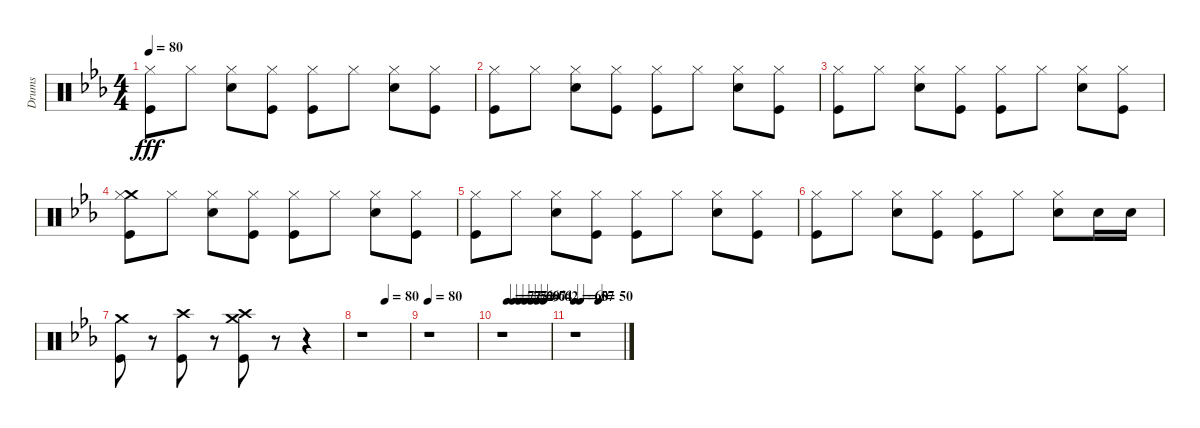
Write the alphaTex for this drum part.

\track ("Drums" "Drums") {instrument percussion}
\staff {score}
\articulation defaults
\ts (4 4)
\tempo 80
\clef neutral
\ks eb
("Kick (hit)" "Hi-Hat (closed)").8{dy fff} "Hi-Hat (closed)".8 ("Snare (hit) 2" "Hi-Hat (closed)").8 ("Kick (hit)" "Hi-Hat (closed)").8 ("Kick (hit)" "Hi-Hat (closed)").8 "Hi-Hat (closed)".8 ("Snare (hit) 2" "Hi-Hat (closed)").8 ("Kick (hit)" "Hi-Hat (closed)").8 |
("Kick (hit)" "Hi-Hat (closed)").8 "Hi-Hat (closed)".8 ("Snare (hit) 2" "Hi-Hat (closed)").8 ("Kick (hit)" "Hi-Hat (closed)").8 ("Kick (hit)" "Hi-Hat (closed)").8 "Hi-Hat (closed)".8 ("Snare (hit) 2" "Hi-Hat (closed)").8 ("Kick (hit)" "Hi-Hat (closed)").8 |
("Kick (hit)" "Hi-Hat (closed)").8 "Hi-Hat (closed)".8 ("Snare (hit) 2" "Hi-Hat (closed)").8 ("Kick (hit)" "Hi-Hat (closed)").8 ("Kick (hit)" "Hi-Hat (closed)").8 "Hi-Hat (closed)".8 ("Snare (hit) 2" "Hi-Hat (closed)").8 ("Kick (hit)" "Hi-Hat (closed)").8 |
("Crash medium (hit)" "Kick (hit)" "Hi-Hat (closed)").8 "Hi-Hat (closed)".8 ("Snare (hit) 2" "Hi-Hat (closed)").8 ("Kick (hit)" "Hi-Hat (closed)").8 ("Kick (hit)" "Hi-Hat (closed)").8 "Hi-Hat (closed)".8 ("Snare (hit) 2" "Hi-Hat (closed)").8 ("Kick (hit)" "Hi-Hat (closed)").8 |
("Kick (hit)" "Hi-Hat (closed)").8 "Hi-Hat (closed)".8 ("Snare (hit) 2" "Hi-Hat (closed)").8 ("Kick (hit)" "Hi-Hat (closed)").8 ("Kick (hit)" "Hi-Hat (closed)").8 "Hi-Hat (closed)".8 ("Snare (hit) 2" "Hi-Hat (closed)").8 ("Kick (hit)" "Hi-Hat (closed)").8 |
("Kick (hit)" "Hi-Hat (closed)").8 "Hi-Hat (closed)".8 ("Snare (hit) 2" "Hi-Hat (closed)").8 ("Kick (hit)" "Hi-Hat (closed)").8 ("Kick (hit)" "Hi-Hat (closed)").8 "Hi-Hat (closed)".8 ("Snare (hit) 2" "Hi-Hat (closed)").8 "Snare (hit) 2".16 "Snare (hit) 2".16 |
("Kick (hit)" "Crash medium (hit)").8 r.8 ("Kick (hit)" "Crash high (hit)").8 r.8 ("Kick (hit)" "Crash medium (hit)" "Crash high (hit)").8 r.8 r.4 |
\tempo (80 0.5)
r.1 |
\tempo 80
r.1 |
\tempo (77 0.125)
\tempo (75 0.25)
\tempo (72 0.375)
\tempo (69 0.5)
\tempo (67 0.625)
\tempo (64 0.75)
\tempo (62 0.875)
r.1 |
\tempo 60
\tempo (57 0.125)
\tempo (50 0.5)
r.1
